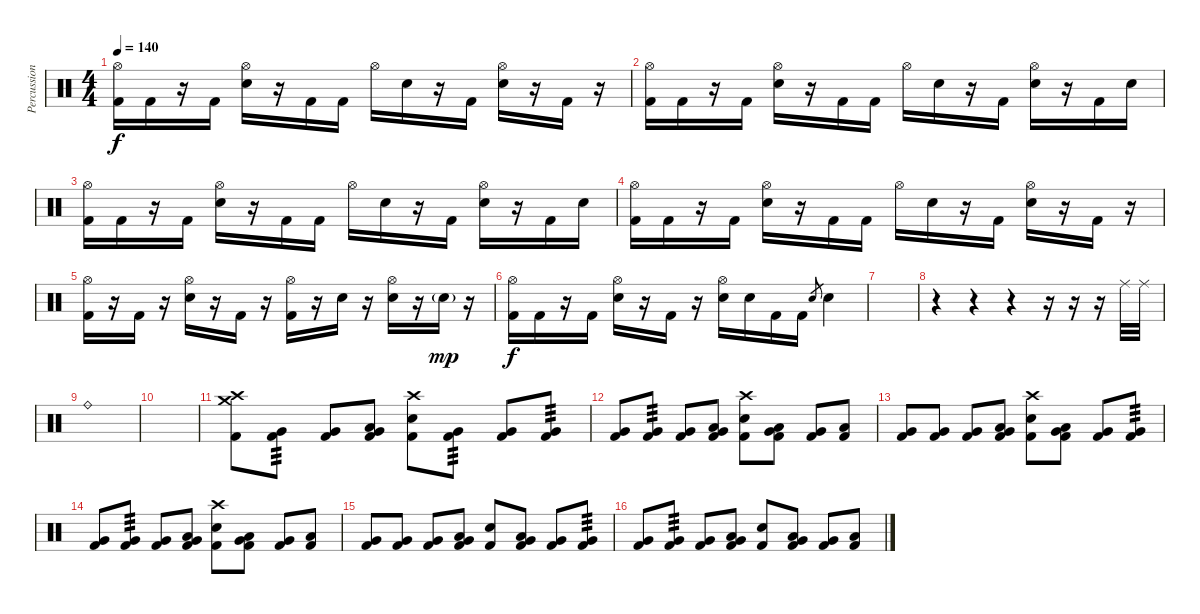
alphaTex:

\track ("Percussion" "Percussion") {instrument percussion}
\staff {score}
\articulation defaults
\ts (4 4)
\tempo 140
\clef neutral
\ks c
("Hi-Hat (open)" "Kick (hit) 2").16{dy f} "Kick (hit) 2".16 r.16 "Kick (hit) 2".16 ("Hi-Hat (open)" "Electric Snare (hit)").16 r.16 "Kick (hit) 2".16 "Kick (hit) 2".16 "Hi-Hat (open)".16 "Electric Snare (hit)".16 r.16 "Kick (hit) 2".16 ("Hi-Hat (open)" "Electric Snare (hit)").16 r.16 "Kick (hit) 2".16 r.16 |
("Hi-Hat (open)" "Kick (hit) 2").16 "Kick (hit) 2".16 r.16 "Kick (hit) 2".16 ("Hi-Hat (open)" "Electric Snare (hit)").16 r.16 "Kick (hit) 2".16 "Kick (hit) 2".16 "Hi-Hat (open)".16 "Electric Snare (hit)".16 r.16 "Kick (hit) 2".16 ("Hi-Hat (open)" "Electric Snare (hit)").16 r.16 "Kick (hit) 2".16 "Electric Snare (hit)".16 |
("Hi-Hat (open)" "Kick (hit) 2").16 "Kick (hit) 2".16 r.16 "Kick (hit) 2".16 ("Hi-Hat (open)" "Electric Snare (hit)").16 r.16 "Kick (hit) 2".16 "Kick (hit) 2".16 "Hi-Hat (open)".16 "Electric Snare (hit)".16 r.16 "Kick (hit) 2".16 ("Hi-Hat (open)" "Electric Snare (hit)").16 r.16 "Kick (hit) 2".16 "Electric Snare (hit)".16 |
("Hi-Hat (open)" "Kick (hit) 2").16 "Kick (hit) 2".16 r.16 "Kick (hit) 2".16 ("Hi-Hat (open)" "Electric Snare (hit)").16 r.16 "Kick (hit) 2".16 "Kick (hit) 2".16 "Hi-Hat (open)".16 "Electric Snare (hit)".16 r.16 "Kick (hit) 2".16 ("Hi-Hat (open)" "Electric Snare (hit)").16 r.16 "Kick (hit) 2".16 r.16 |
("Hi-Hat (open)" "Kick (hit) 2").16 r.16 "Kick (hit) 2".16 r.16 ("Hi-Hat (open)" "Electric Snare (hit)").16 r.16 "Kick (hit) 2".16 r.16 ("Hi-Hat (open)" "Kick (hit) 2").16 r.16 "Electric Snare (hit)".16 r.16 ("Hi-Hat (open)" "Electric Snare (hit)").16 r.16 "Electric Snare (hit)"{g}.16{dy mp} r.16 |
("Hi-Hat (open)" "Kick (hit) 2").16{dy f} "Kick (hit) 2".16 r.16 "Kick (hit) 2".16 ("Hi-Hat (open)" "Electric Snare (hit)").16 r.16 "Kick (hit) 2".16 r.16 ("Hi-Hat (open)" "Electric Snare (hit)").16 "Electric Snare (hit)".16 "Kick (hit) 2".16 "Kick (hit) 2".16 "Electric Snare (hit)".8{gr} "Electric Snare (hit)".4 |
|
r.4 r.4 r.4 r.16 r.16 r.16 "Ride (middle)".32 "Ride (middle)".32 |
"Ride (bell)".1 |
|
("Crash high (hit)" "Crash medium (hit)" "Kick (hit) 2").8 ("Very Low Tom (hit)" "Kick (hit) 2").8{tp 3} ("Very Low Tom (hit)" "Kick (hit) 2").8 ("Low Tom (hit)" "Very Low Tom (hit)" "Kick (hit) 2").8 ("Crash high (hit)" "Electric Snare (hit)" "Kick (hit) 2").8 ("Very Low Tom (hit)" "Kick (hit) 2").8{tp 3} ("Very Low Tom (hit)" "Kick (hit) 2").8 ("Very Low Tom (hit)" "Kick (hit) 2").8{tp 3} |
("Very Low Tom (hit)" "Kick (hit) 2").8 ("Very Low Tom (hit)" "Kick (hit) 2").8{tp 3} ("Very Low Tom (hit)" "Kick (hit) 2").8 ("Low Tom (hit)" "Very Low Tom (hit)" "Kick (hit) 2").8 ("Crash high (hit)" "Electric Snare (hit)" "Kick (hit) 2").8 ("Low Tom (hit)" "Very Low Tom (hit)" "Kick (hit) 2").8 ("Very Low Tom (hit)" "Kick (hit) 2").8 ("Low Tom (hit)" "Kick (hit) 2").8 |
("Very Low Tom (hit)" "Kick (hit) 2").8 ("Very Low Tom (hit)" "Kick (hit) 2").8 ("Very Low Tom (hit)" "Kick (hit) 2").8 ("Low Tom (hit)" "Very Low Tom (hit)" "Kick (hit) 2").8 ("Crash high (hit)" "Electric Snare (hit)" "Kick (hit) 2").8 ("Low Tom (hit)" "Very Low Tom (hit)" "Kick (hit) 2").8 ("Very Low Tom (hit)" "Kick (hit) 2").8 ("Very Low Tom (hit)" "Kick (hit) 2").8{tp 3} |
("Very Low Tom (hit)" "Kick (hit) 2").8 ("Very Low Tom (hit)" "Kick (hit) 2").8{tp 3} ("Very Low Tom (hit)" "Kick (hit) 2").8 ("Low Tom (hit)" "Very Low Tom (hit)" "Kick (hit) 2").8 ("Crash high (hit)" "Electric Snare (hit)" "Kick (hit) 2").8 ("Low Tom (hit)" "Very Low Tom (hit)" "Kick (hit) 2").8 ("Very Low Tom (hit)" "Kick (hit) 2").8 ("Low Tom (hit)" "Kick (hit) 2").8 |
("Very Low Tom (hit)" "Kick (hit) 2").8 ("Very Low Tom (hit)" "Kick (hit) 2").8 ("Very Low Tom (hit)" "Kick (hit) 2").8 ("Low Tom (hit)" "Very Low Tom (hit)" "Kick (hit) 2").8 ("Electric Snare (hit)" "Kick (hit) 2").8 ("Low Tom (hit)" "Very Low Tom (hit)" "Kick (hit) 2").8 ("Very Low Tom (hit)" "Kick (hit) 2").8 ("Very Low Tom (hit)" "Kick (hit) 2").8{tp 3} |
("Very Low Tom (hit)" "Kick (hit) 2").8 ("Very Low Tom (hit)" "Kick (hit) 2").8{tp 3} ("Very Low Tom (hit)" "Kick (hit) 2").8 ("Low Tom (hit)" "Very Low Tom (hit)" "Kick (hit) 2").8 ("Electric Snare (hit)" "Kick (hit) 2").8 ("Low Tom (hit)" "Very Low Tom (hit)" "Kick (hit) 2").8 ("Very Low Tom (hit)" "Kick (hit) 2").8 ("Low Tom (hit)" "Kick (hit) 2").8
